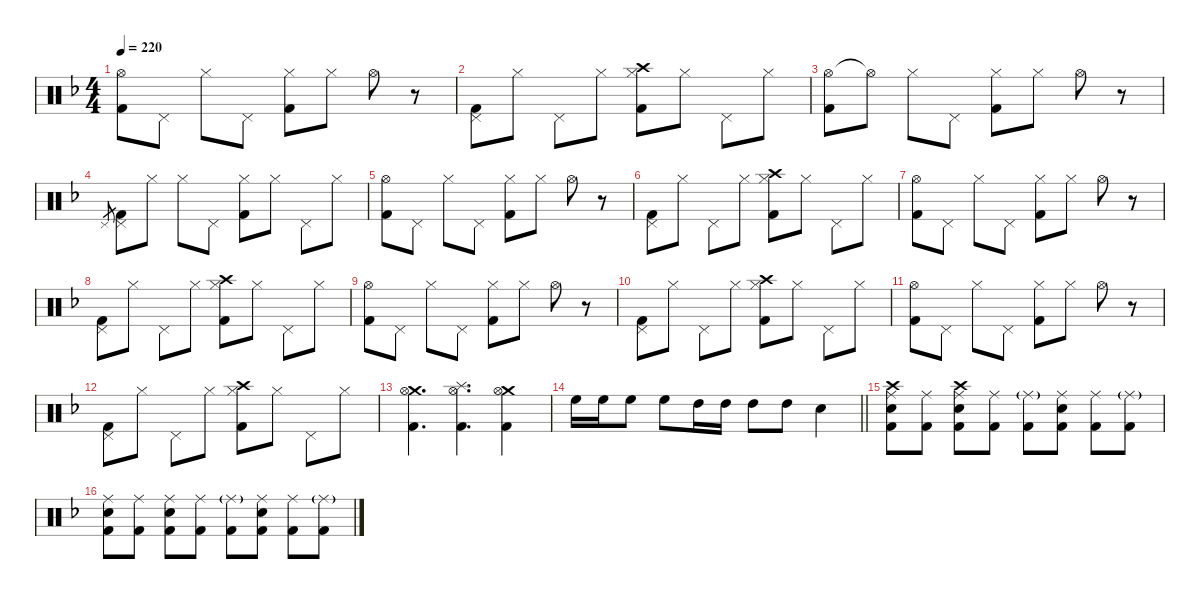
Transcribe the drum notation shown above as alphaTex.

\hideDynamics
\bracketExtendMode nobrackets
\singleTrackTrackNamePolicy hidden
\multiTrackTrackNamePolicy hidden
\firstSystemTrackNameMode fullname
\firstSystemTrackNameOrientation horizontal
\otherSystemsTrackNameOrientation horizontal
\track ("Drumkit" "Drums") {instrument percussion}
\staff {score}
\articulation defaults
\ts (4 4)
\tempo 220
\clef neutral
\ks dminor
("Hi-Hat (open)"{acc forcenatural} "Kick (hit) 2"{acc forcenatural}).8{dy p beam Down} "Pedal Hi-Hat (hit)"{acc forcenatural}.8{beam Down} "Hi-Hat (closed)"{acc forcenatural}.8{dy mp beam Down} "Pedal Hi-Hat (hit)"{acc forcenatural}.8{beam Down} ("Hi-Hat (closed)"{acc forcenatural} "Kick (hit) 2"{acc forcenatural}).8{beam Down} "Hi-Hat (closed)"{acc forcenatural}.8{beam Down} "Hi-Hat (open)"{acc forcenatural}.8{beam Down} r.8{beam Down} |
("Pedal Hi-Hat (hit)"{acc forcenatural} "Kick (hit) 2"{acc forcenatural}).8{beam Down} "Hi-Hat (closed)"{acc forcenatural}.8{dy p beam Down} "Pedal Hi-Hat (hit)"{acc forcenatural}.8{dy mp beam Down} "Hi-Hat (closed)"{acc forcenatural}.8{beam Down} ("Crash high (hit)"{acc forcenatural} "Hi-Hat (closed)"{acc forcenatural} "Kick (hit) 2"{acc forcenatural}).8{beam Down} "Hi-Hat (closed)"{acc forcenatural}.8{beam Down} "Pedal Hi-Hat (hit)"{acc forcenatural}.8{dy p beam Down} "Hi-Hat (closed)"{acc forcenatural}.8{beam Down} |
("Hi-Hat (open)"{acc forcenatural} "Kick (hit) 2"{acc forcenatural}).8{beam Down} "Hi-Hat (open)"{t acc forcenatural}.8{beam Down} "Hi-Hat (closed)"{acc forcenatural}.8{dy mp beam Down} "Pedal Hi-Hat (hit)"{acc forcenatural}.8{beam Down} ("Hi-Hat (closed)"{acc forcenatural} "Kick (hit) 2"{acc forcenatural}).8{beam Down} "Hi-Hat (closed)"{acc forcenatural}.8{beam Down} "Hi-Hat (open)"{acc forcenatural}.8{beam Down} r.8{beam Down} |
"Pedal Hi-Hat (hit)"{acc forcenatural}.8{gr dy p beam Up} ("Pedal Hi-Hat (hit)"{acc forcenatural} "Kick (hit) 2"{acc forcenatural}).8{beam Down} "Hi-Hat (closed)"{acc forcenatural}.8{beam Down} "Hi-Hat (closed)"{acc forcenatural}.8{dy mp beam Down} "Pedal Hi-Hat (hit)"{acc forcenatural}.8{dy mf beam Down} ("Hi-Hat (closed)"{acc forcenatural} "Kick (hit) 2"{acc forcenatural}).8{dy mp beam Down} "Hi-Hat (closed)"{acc forcenatural}.8{beam Down} "Pedal Hi-Hat (hit)"{acc forcenatural}.8{beam Down} "Hi-Hat (closed)"{acc forcenatural}.8{dy p beam Down} |
("Hi-Hat (open)"{acc forcenatural} "Kick (hit) 2"{acc forcenatural}).8{beam Down} "Pedal Hi-Hat (hit)"{acc forcenatural}.8{beam Down} "Hi-Hat (closed)"{acc forcenatural}.8{dy mp beam Down} "Pedal Hi-Hat (hit)"{acc forcenatural}.8{beam Down} ("Hi-Hat (closed)"{acc forcenatural} "Kick (hit) 2"{acc forcenatural}).8{beam Down} "Hi-Hat (closed)"{acc forcenatural}.8{beam Down} "Hi-Hat (open)"{acc forcenatural}.8{beam Down} r.8{beam Down} |
("Pedal Hi-Hat (hit)"{acc forcenatural} "Kick (hit) 2"{acc forcenatural}).8{beam Down} "Hi-Hat (closed)"{acc forcenatural}.8{dy p beam Down} "Pedal Hi-Hat (hit)"{acc forcenatural}.8{dy mp beam Down} "Hi-Hat (closed)"{acc forcenatural}.8{beam Down} ("Crash high (hit)"{acc forcenatural} "Hi-Hat (closed)"{acc forcenatural} "Kick (hit) 2"{acc forcenatural}).8{beam Down} "Hi-Hat (closed)"{acc forcenatural}.8{beam Down} "Pedal Hi-Hat (hit)"{acc forcenatural}.8{dy p beam Down} "Hi-Hat (closed)"{acc forcenatural}.8{beam Down} |
("Hi-Hat (open)"{acc forcenatural} "Kick (hit) 2"{acc forcenatural}).8{beam Down} "Pedal Hi-Hat (hit)"{acc forcenatural}.8{beam Down} "Hi-Hat (closed)"{acc forcenatural}.8{dy mp beam Down} "Pedal Hi-Hat (hit)"{acc forcenatural}.8{beam Down} ("Hi-Hat (closed)"{acc forcenatural} "Kick (hit) 2"{acc forcenatural}).8{beam Down} "Hi-Hat (closed)"{acc forcenatural}.8{beam Down} "Hi-Hat (open)"{acc forcenatural}.8{beam Down} r.8{beam Down} |
("Pedal Hi-Hat (hit)"{acc forcenatural} "Kick (hit) 2"{acc forcenatural}).8{beam Down} "Hi-Hat (closed)"{acc forcenatural}.8{dy p beam Down} "Pedal Hi-Hat (hit)"{acc forcenatural}.8{dy mp beam Down} "Hi-Hat (closed)"{acc forcenatural}.8{beam Down} ("Crash high (hit)"{acc forcenatural} "Hi-Hat (closed)"{acc forcenatural} "Kick (hit) 2"{acc forcenatural}).8{beam Down} "Hi-Hat (closed)"{acc forcenatural}.8{beam Down} "Pedal Hi-Hat (hit)"{acc forcenatural}.8{dy p beam Down} "Hi-Hat (closed)"{acc forcenatural}.8{beam Down} |
("Hi-Hat (open)"{acc forcenatural} "Kick (hit) 2"{acc forcenatural}).8{beam Down} "Pedal Hi-Hat (hit)"{acc forcenatural}.8{beam Down} "Hi-Hat (closed)"{acc forcenatural}.8{dy mp beam Down} "Pedal Hi-Hat (hit)"{acc forcenatural}.8{beam Down} ("Hi-Hat (closed)"{acc forcenatural} "Kick (hit) 2"{acc forcenatural}).8{beam Down} "Hi-Hat (closed)"{acc forcenatural}.8{beam Down} "Hi-Hat (open)"{acc forcenatural}.8{beam Down} r.8{beam Down} |
("Pedal Hi-Hat (hit)"{acc forcenatural} "Kick (hit) 2"{acc forcenatural}).8{beam Down} "Hi-Hat (closed)"{acc forcenatural}.8{dy p beam Down} "Pedal Hi-Hat (hit)"{acc forcenatural}.8{dy mp beam Down} "Hi-Hat (closed)"{acc forcenatural}.8{beam Down} ("Crash high (hit)"{acc forcenatural} "Hi-Hat (closed)"{acc forcenatural} "Kick (hit) 2"{acc forcenatural}).8{beam Down} "Hi-Hat (closed)"{acc forcenatural}.8{beam Down} "Pedal Hi-Hat (hit)"{acc forcenatural}.8{dy p beam Down} "Hi-Hat (closed)"{acc forcenatural}.8{beam Down} |
("Hi-Hat (open)"{acc forcenatural} "Kick (hit) 2"{acc forcenatural}).8{beam Down} "Pedal Hi-Hat (hit)"{acc forcenatural}.8{beam Down} "Hi-Hat (closed)"{acc forcenatural}.8{dy mp beam Down} "Pedal Hi-Hat (hit)"{acc forcenatural}.8{beam Down} ("Hi-Hat (closed)"{acc forcenatural} "Kick (hit) 2"{acc forcenatural}).8{beam Down} "Hi-Hat (closed)"{acc forcenatural}.8{beam Down} "Hi-Hat (open)"{acc forcenatural}.8{beam Down} r.8{beam Down} |
("Pedal Hi-Hat (hit)"{acc forcenatural} "Kick (hit) 2"{acc forcenatural}).8{beam Down} "Hi-Hat (closed)"{acc forcenatural}.8{dy p beam Down} "Pedal Hi-Hat (hit)"{acc forcenatural}.8{dy mp beam Down} "Hi-Hat (closed)"{acc forcenatural}.8{beam Down} ("Crash high (hit)"{acc forcenatural} "Hi-Hat (closed)"{acc forcenatural} "Kick (hit) 2"{acc forcenatural}).8{beam Down} "Hi-Hat (closed)"{acc forcenatural}.8{beam Down} "Pedal Hi-Hat (hit)"{acc forcenatural}.8{dy p beam Down} "Hi-Hat (closed)"{acc forcenatural}.8{beam Down} |
("Crash medium (hit)"{acc forcenatural} "Hi-Hat (open)"{acc forcenatural} "Kick (hit) 2"{acc forcenatural}).4{d dy f beam Down} ("Splash (hit)"{acc forcenatural} "Hi-Hat (open)"{acc forcenatural} "Kick (hit) 2"{acc forcenatural}).4{d beam Down} ("Crash medium (hit)"{acc forcenatural} "Hi-Hat (open)"{acc forcenatural} "Kick (hit) 2"{acc forcenatural}).4{beam Down} |
\barLineRight lightlight "High Floor Tom (hit)"{acc forcenatural}.16{beam Down} "High Floor Tom (hit)"{acc forcenatural}.16{beam Down} "High Floor Tom (hit)"{acc forcenatural}.8{beam Down} "High Floor Tom (hit)"{acc forcenatural}.8{beam Down} "High Tom (hit)"{acc forcenatural}.16{beam Down} "High Tom (hit)"{acc forcenatural}.16{beam Down} "High Tom (hit)"{acc forcenatural}.8{beam Down} "High Tom (hit)"{acc forcenatural}.8{beam Down} "Snare (hit) 2"{acc forcenatural}.4{beam Down}
|
("Crash high (hit)"{acc forcenatural} "Ride (middle)"{acc forcenatural} "Snare (hit) 2"{acc forcenatural} "Kick (hit) 2"{acc forcenatural}).8{beam Down} ("Ride (middle)"{acc forcenatural} "Kick (hit) 2"{acc forcenatural}).8{dy mf beam Down} ("Crash high (hit)"{acc forcenatural} "Ride (middle)"{acc forcenatural} "Snare (hit) 2"{acc forcenatural} "Kick (hit) 2"{acc forcenatural}).8{dy f beam Down} ("Ride (middle)"{acc forcenatural} "Kick (hit) 2"{acc forcenatural}).8{dy mf beam Down} ("Ride (middle)"{g acc forcenatural} "Kick (hit) 2"{acc forcenatural}).8{dy f beam Down} ("Ride (middle)"{acc forcenatural} "Snare (hit) 2"{acc forcenatural} "Kick (hit) 2"{acc forcenatural}).8{dy mf beam Down} ("Ride (middle)"{acc forcenatural} "Kick (hit) 2"{acc forcenatural}).8{beam Down} ("Ride (middle)"{g acc forcenatural} "Kick (hit) 2"{acc forcenatural}).8{dy f beam Down} |
("Ride (middle)"{acc forcenatural} "Snare (hit) 2"{acc forcenatural} "Kick (hit) 2"{acc forcenatural}).8{dy mf beam Down} ("Ride (middle)"{acc forcenatural} "Kick (hit) 2"{acc forcenatural}).8{beam Down} ("Ride (middle)"{acc forcenatural} "Snare (hit) 2"{acc forcenatural} "Kick (hit) 2"{acc forcenatural}).8{beam Down} ("Ride (middle)"{acc forcenatural} "Kick (hit) 2"{acc forcenatural}).8{beam Down} ("Ride (middle)"{g acc forcenatural} "Kick (hit) 2"{acc forcenatural}).8{dy f beam Down} ("Ride (middle)"{acc forcenatural} "Snare (hit) 2"{acc forcenatural} "Kick (hit) 2"{acc forcenatural}).8{dy mf beam Down} ("Ride (middle)"{acc forcenatural} "Kick (hit) 2"{acc forcenatural}).8{beam Down} ("Ride (middle)"{g acc forcenatural} "Kick (hit) 2"{acc forcenatural}).8{dy f beam Down}
